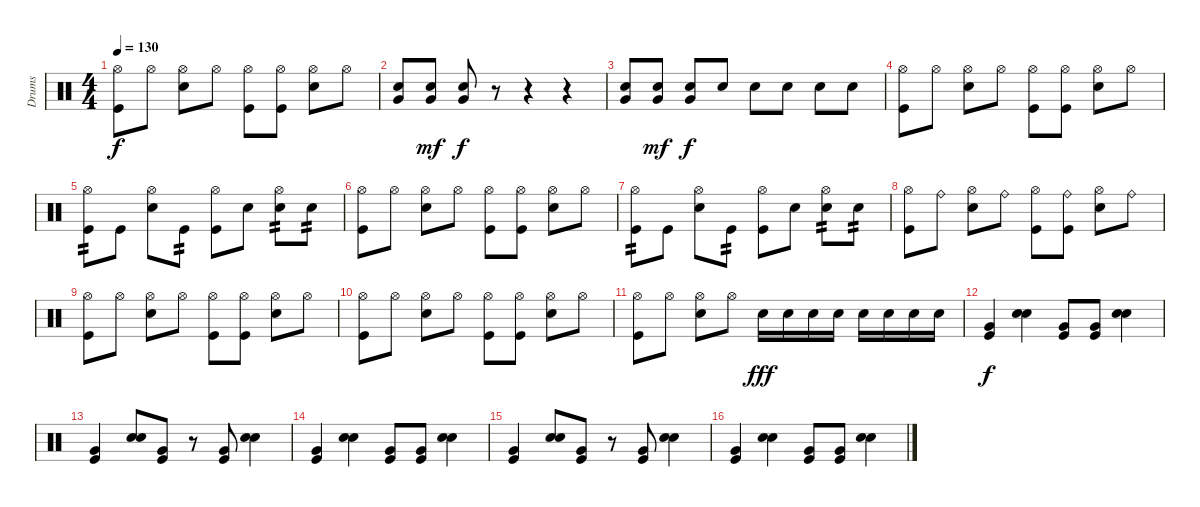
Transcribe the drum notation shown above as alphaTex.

\track ("Drums" "Drums") {instrument percussion}
\staff {score}
\articulation defaults
\ts (4 4)
\tempo 130
\clef neutral
\ks c
("Hi-Hat (open)" "Kick (hit)").8{dy f} "Hi-Hat (open)".8 ("Hi-Hat (open)" "Snare (hit) 2").8 "Hi-Hat (open)".8 ("Hi-Hat (open)" "Kick (hit)").8 ("Hi-Hat (open)" "Kick (hit)").8 ("Hi-Hat (open)" "Snare (hit) 2").8 "Hi-Hat (open)".8 |
("Very Low Tom (hit)" "Snare (hit) 2").8 ("Very Low Tom (hit)" "Snare (hit) 2").8{dy mf} ("Very Low Tom (hit)" "Snare (hit) 2").8{dy f} r.8 r.4 r.4 |
("Very Low Tom (hit)" "Snare (hit) 2").8 ("Very Low Tom (hit)" "Snare (hit) 2").8{dy mf} ("Very Low Tom (hit)" "Snare (hit) 2").8{dy f} "Snare (hit) 2".8 "Snare (hit) 2".8 "Snare (hit) 2".8 "Snare (hit) 2".8 "Snare (hit) 2".8 |
("Hi-Hat (open)" "Kick (hit)").8 "Hi-Hat (open)".8 ("Hi-Hat (open)" "Snare (hit) 2").8 "Hi-Hat (open)".8 ("Hi-Hat (open)" "Kick (hit)").8 ("Hi-Hat (open)" "Kick (hit)").8 ("Hi-Hat (open)" "Snare (hit) 2").8 "Hi-Hat (open)".8 |
("Hi-Hat (open)" "Kick (hit)").8{tp 2} "Kick (hit)".8 ("Hi-Hat (open)" "Snare (hit) 2").8 "Kick (hit)".8{tp 2} ("Hi-Hat (open)" "Kick (hit)").8 "Snare (hit) 2".8 ("Hi-Hat (open)" "Snare (hit) 2").8{tp 2} "Snare (hit) 2".8{tp 2} |
("Hi-Hat (open)" "Kick (hit)").8 "Hi-Hat (open)".8 ("Hi-Hat (open)" "Snare (hit) 2").8 "Hi-Hat (open)".8 ("Hi-Hat (open)" "Kick (hit)").8 ("Hi-Hat (open)" "Kick (hit)").8 ("Hi-Hat (open)" "Snare (hit) 2").8 "Hi-Hat (open)".8 |
("Hi-Hat (open)" "Kick (hit)").8{tp 2} "Kick (hit)".8 ("Hi-Hat (open)" "Snare (hit) 2").8 "Kick (hit)".8{tp 2} ("Hi-Hat (open)" "Kick (hit)").8 "Snare (hit) 2".8 ("Hi-Hat (open)" "Snare (hit) 2").8{tp 2} "Snare (hit) 2".8{tp 2} |
("Hi-Hat (open)" "Kick (hit)").8 "Ride (bell)".8 ("Hi-Hat (open)" "Snare (hit) 2").8 "Ride (bell)".8 ("Hi-Hat (open)" "Kick (hit)").8 ("Ride (bell)" "Kick (hit)").8 ("Hi-Hat (open)" "Snare (hit) 2").8 "Ride (bell)".8 |
("Hi-Hat (open)" "Kick (hit)").8 "Hi-Hat (open)".8 ("Hi-Hat (open)" "Snare (hit) 2").8 "Hi-Hat (open)".8 ("Hi-Hat (open)" "Kick (hit)").8 ("Hi-Hat (open)" "Kick (hit)").8 ("Hi-Hat (open)" "Snare (hit) 2").8 "Hi-Hat (open)".8 |
("Hi-Hat (open)" "Kick (hit)").8 "Hi-Hat (open)".8 ("Hi-Hat (open)" "Snare (hit) 2").8 "Hi-Hat (open)".8 ("Hi-Hat (open)" "Kick (hit)").8 ("Hi-Hat (open)" "Kick (hit)").8 ("Hi-Hat (open)" "Snare (hit) 2").8 "Hi-Hat (open)".8 |
("Hi-Hat (open)" "Kick (hit)").8 "Hi-Hat (open)".8 ("Hi-Hat (open)" "Snare (hit) 2").8 "Hi-Hat (open)".8 "Snare (hit) 2".16{dy fff} "Snare (hit) 2".16 "Snare (hit) 2".16 "Snare (hit) 2".16 "Snare (hit) 2".16 "Snare (hit) 2".16 "Snare (hit) 2".16 "Snare (hit) 2".16 |
("Kick (hit)" "Very Low Tom (hit)").4{dy f} ("Snare (hit) 2" "Hand Clap (hit)").4 ("Kick (hit)" "Very Low Tom (hit)").8 ("Kick (hit)" "Very Low Tom (hit)").8 ("Snare (hit) 2" "Hand Clap (hit)").4 |
("Kick (hit)" "Very Low Tom (hit)").4 ("Snare (hit) 2" "Hand Clap (hit)").8 ("Kick (hit)" "Very Low Tom (hit)").8 r.8 ("Kick (hit)" "Very Low Tom (hit)").8 ("Snare (hit) 2" "Hand Clap (hit)").4 |
("Kick (hit)" "Very Low Tom (hit)").4 ("Snare (hit) 2" "Hand Clap (hit)").4 ("Kick (hit)" "Very Low Tom (hit)").8 ("Kick (hit)" "Very Low Tom (hit)").8 ("Snare (hit) 2" "Hand Clap (hit)").4 |
("Kick (hit)" "Very Low Tom (hit)").4 ("Snare (hit) 2" "Hand Clap (hit)").8 ("Kick (hit)" "Very Low Tom (hit)").8 r.8 ("Kick (hit)" "Very Low Tom (hit)").8 ("Snare (hit) 2" "Hand Clap (hit)").4 |
("Kick (hit)" "Very Low Tom (hit)").4 ("Snare (hit) 2" "Hand Clap (hit)").4 ("Kick (hit)" "Very Low Tom (hit)").8 ("Kick (hit)" "Very Low Tom (hit)").8 ("Snare (hit) 2" "Hand Clap (hit)").4
